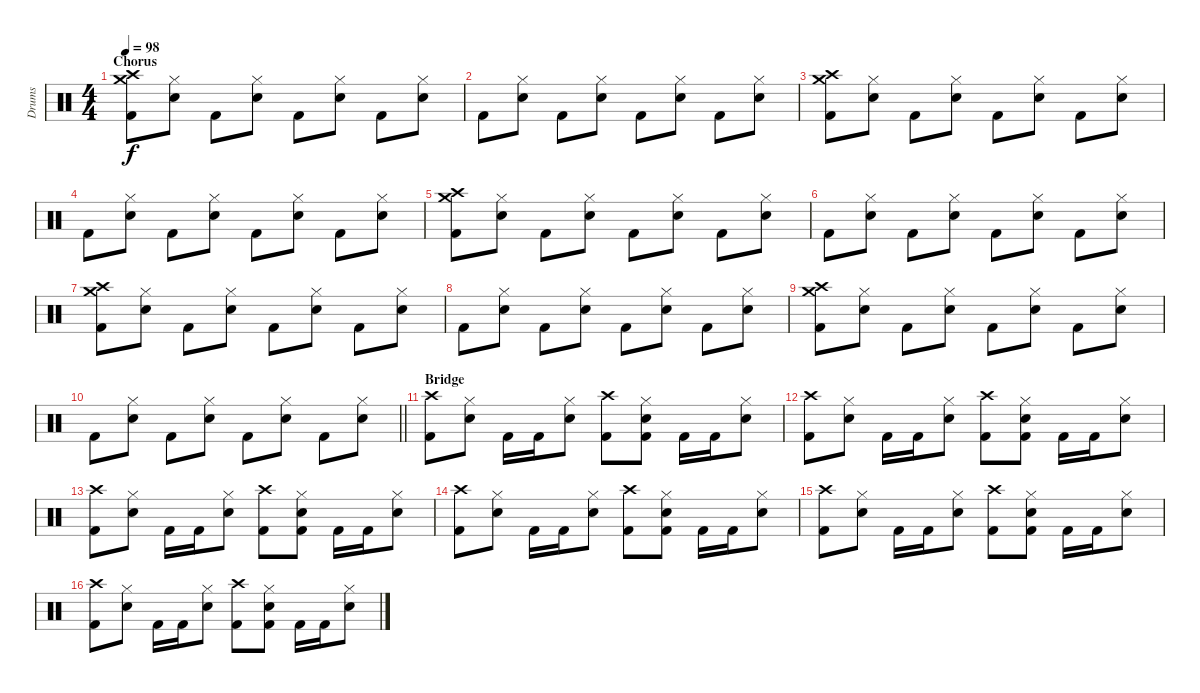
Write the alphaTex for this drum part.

\track ("Drums" "Drums") {instrument percussion}
\staff {score}
\articulation defaults
\ts (4 4)
\section ("" "Chorus")
\tempo 98
\clef neutral
\ks c
("Crash medium (hit)" "Crash high (hit)" "Kick (hit) 2").8{dy f} ("Hi-Hat (closed)" "Snare (hit) 2").8 "Kick (hit) 2".8 ("Hi-Hat (closed)" "Snare (hit) 2").8 "Kick (hit) 2".8 ("Hi-Hat (closed)" "Snare (hit) 2").8 "Kick (hit) 2".8 ("Hi-Hat (closed)" "Snare (hit) 2").8 |
"Kick (hit) 2".8 ("Hi-Hat (closed)" "Snare (hit) 2").8 "Kick (hit) 2".8 ("Hi-Hat (closed)" "Snare (hit) 2").8 "Kick (hit) 2".8 ("Hi-Hat (closed)" "Snare (hit) 2").8 "Kick (hit) 2".8 ("Hi-Hat (closed)" "Snare (hit) 2").8 |
("Crash medium (hit)" "Crash high (hit)" "Kick (hit) 2").8 ("Hi-Hat (closed)" "Snare (hit) 2").8 "Kick (hit) 2".8 ("Hi-Hat (closed)" "Snare (hit) 2").8 "Kick (hit) 2".8 ("Hi-Hat (closed)" "Snare (hit) 2").8 "Kick (hit) 2".8 ("Hi-Hat (closed)" "Snare (hit) 2").8 |
"Kick (hit) 2".8 ("Hi-Hat (closed)" "Snare (hit) 2").8 "Kick (hit) 2".8 ("Hi-Hat (closed)" "Snare (hit) 2").8 "Kick (hit) 2".8 ("Hi-Hat (closed)" "Snare (hit) 2").8 "Kick (hit) 2".8 ("Hi-Hat (closed)" "Snare (hit) 2").8 |
("Crash medium (hit)" "Crash high (hit)" "Kick (hit) 2").8 ("Hi-Hat (closed)" "Snare (hit) 2").8 "Kick (hit) 2".8 ("Hi-Hat (closed)" "Snare (hit) 2").8 "Kick (hit) 2".8 ("Hi-Hat (closed)" "Snare (hit) 2").8 "Kick (hit) 2".8 ("Hi-Hat (closed)" "Snare (hit) 2").8 |
"Kick (hit) 2".8 ("Hi-Hat (closed)" "Snare (hit) 2").8 "Kick (hit) 2".8 ("Hi-Hat (closed)" "Snare (hit) 2").8 "Kick (hit) 2".8 ("Hi-Hat (closed)" "Snare (hit) 2").8 "Kick (hit) 2".8 ("Hi-Hat (closed)" "Snare (hit) 2").8 |
("Crash medium (hit)" "Crash high (hit)" "Kick (hit) 2").8 ("Hi-Hat (closed)" "Snare (hit) 2").8 "Kick (hit) 2".8 ("Hi-Hat (closed)" "Snare (hit) 2").8 "Kick (hit) 2".8 ("Hi-Hat (closed)" "Snare (hit) 2").8 "Kick (hit) 2".8 ("Hi-Hat (closed)" "Snare (hit) 2").8 |
"Kick (hit) 2".8 ("Hi-Hat (closed)" "Snare (hit) 2").8 "Kick (hit) 2".8 ("Hi-Hat (closed)" "Snare (hit) 2").8 "Kick (hit) 2".8 ("Hi-Hat (closed)" "Snare (hit) 2").8 "Kick (hit) 2".8 ("Hi-Hat (closed)" "Snare (hit) 2").8 |
("Crash medium (hit)" "Crash high (hit)" "Kick (hit) 2").8 ("Hi-Hat (closed)" "Snare (hit) 2").8 "Kick (hit) 2".8 ("Hi-Hat (closed)" "Snare (hit) 2").8 "Kick (hit) 2".8 ("Hi-Hat (closed)" "Snare (hit) 2").8 "Kick (hit) 2".8 ("Hi-Hat (closed)" "Snare (hit) 2").8 |
\barLineRight lightlight "Kick (hit) 2".8
("Hi-Hat (closed)" "Snare (hit) 2").8 "Kick (hit) 2".8 ("Hi-Hat (closed)" "Snare (hit) 2").8 "Kick (hit) 2".8 ("Hi-Hat (closed)" "Snare (hit) 2").8 "Kick (hit) 2".8 ("Hi-Hat (closed)" "Snare (hit) 2").8 |
\section ("" "Bridge")
("Crash high (hit)" "Kick (hit) 2").8 ("Hi-Hat (closed)" "Snare (hit) 2").8 "Kick (hit) 2".16 "Kick (hit) 2".16 ("Hi-Hat (closed)" "Snare (hit) 2").8 ("Crash high (hit)" "Kick (hit) 2").8 ("Hi-Hat (closed)" "Snare (hit) 2" "Kick (hit) 2").8 "Kick (hit) 2".16 "Kick (hit) 2".16 ("Hi-Hat (closed)" "Snare (hit) 2").8 |
("Crash high (hit)" "Kick (hit) 2").8 ("Hi-Hat (closed)" "Snare (hit) 2").8 "Kick (hit) 2".16 "Kick (hit) 2".16 ("Hi-Hat (closed)" "Snare (hit) 2").8 ("Crash high (hit)" "Kick (hit) 2").8 ("Hi-Hat (closed)" "Snare (hit) 2" "Kick (hit) 2").8 "Kick (hit) 2".16 "Kick (hit) 2".16 ("Hi-Hat (closed)" "Snare (hit) 2").8 |
("Crash high (hit)" "Kick (hit) 2").8 ("Hi-Hat (closed)" "Snare (hit) 2").8 "Kick (hit) 2".16 "Kick (hit) 2".16 ("Hi-Hat (closed)" "Snare (hit) 2").8 ("Crash high (hit)" "Kick (hit) 2").8 ("Hi-Hat (closed)" "Snare (hit) 2" "Kick (hit) 2").8 "Kick (hit) 2".16 "Kick (hit) 2".16 ("Hi-Hat (closed)" "Snare (hit) 2").8 |
("Crash high (hit)" "Kick (hit) 2").8 ("Hi-Hat (closed)" "Snare (hit) 2").8 "Kick (hit) 2".16 "Kick (hit) 2".16 ("Hi-Hat (closed)" "Snare (hit) 2").8 ("Crash high (hit)" "Kick (hit) 2").8 ("Hi-Hat (closed)" "Snare (hit) 2" "Kick (hit) 2").8 "Kick (hit) 2".16 "Kick (hit) 2".16 ("Hi-Hat (closed)" "Snare (hit) 2").8 |
("Crash high (hit)" "Kick (hit) 2").8 ("Hi-Hat (closed)" "Snare (hit) 2").8 "Kick (hit) 2".16 "Kick (hit) 2".16 ("Hi-Hat (closed)" "Snare (hit) 2").8 ("Crash high (hit)" "Kick (hit) 2").8 ("Hi-Hat (closed)" "Snare (hit) 2" "Kick (hit) 2").8 "Kick (hit) 2".16 "Kick (hit) 2".16 ("Hi-Hat (closed)" "Snare (hit) 2").8 |
("Crash high (hit)" "Kick (hit) 2").8 ("Hi-Hat (closed)" "Snare (hit) 2").8 "Kick (hit) 2".16 "Kick (hit) 2".16 ("Hi-Hat (closed)" "Snare (hit) 2").8 ("Crash high (hit)" "Kick (hit) 2").8 ("Hi-Hat (closed)" "Snare (hit) 2" "Kick (hit) 2").8 "Kick (hit) 2".16 "Kick (hit) 2".16 ("Hi-Hat (closed)" "Snare (hit) 2").8
